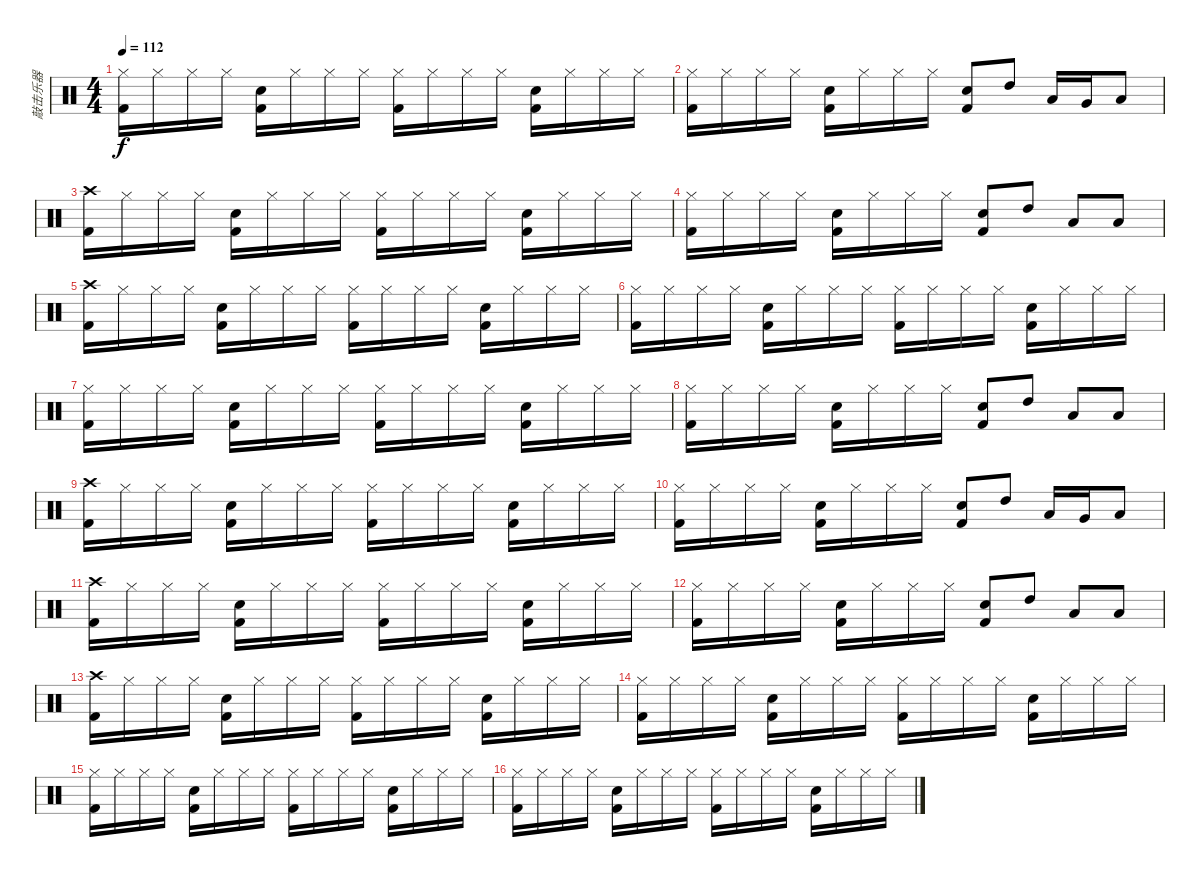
\track ("敲击乐器" "敲击乐器") {instrument percussion}
\staff {score}
\articulation defaults
\ts (4 4)
\tempo 112
\clef neutral
\ks c
("Hi-Hat (closed)" "Kick (hit) 2").16{dy f} "Hi-Hat (closed)".16 "Hi-Hat (closed)".16 "Hi-Hat (closed)".16 ("Snare (hit) 2" "Kick (hit) 2").16 "Hi-Hat (closed)".16 "Hi-Hat (closed)".16 "Hi-Hat (closed)".16 ("Hi-Hat (closed)" "Kick (hit) 2").16 "Hi-Hat (closed)".16 "Hi-Hat (closed)".16 "Hi-Hat (closed)".16 ("Snare (hit) 2" "Kick (hit) 2").16 "Hi-Hat (closed)".16 "Hi-Hat (closed)".16 "Hi-Hat (closed)".16 |
("Hi-Hat (closed)" "Kick (hit) 2").16 "Hi-Hat (closed)".16 "Hi-Hat (closed)".16 "Hi-Hat (closed)".16 ("Snare (hit) 2" "Kick (hit) 2").16 "Hi-Hat (closed)".16 "Hi-Hat (closed)".16 "Hi-Hat (closed)".16 ("Snare (hit) 2" "Kick (hit) 2").8 "High Tom (hit)".8 "Low Tom (hit)".16 "Very Low Tom (hit)".16 "Low Floor Tom (hit)".8 |
("Crash high (hit)" "Kick (hit) 2").16 "Hi-Hat (closed)".16 "Hi-Hat (closed)".16 "Hi-Hat (closed)".16 ("Snare (hit) 2" "Kick (hit) 2").16 "Hi-Hat (closed)".16 "Hi-Hat (closed)".16 "Hi-Hat (closed)".16 ("Hi-Hat (closed)" "Kick (hit) 2").16 "Hi-Hat (closed)".16 "Hi-Hat (closed)".16 "Hi-Hat (closed)".16 ("Snare (hit) 2" "Kick (hit) 2").16 "Hi-Hat (closed)".16 "Hi-Hat (closed)".16 "Hi-Hat (closed)".16 |
("Hi-Hat (closed)" "Kick (hit) 2").16 "Hi-Hat (closed)".16 "Hi-Hat (closed)".16 "Hi-Hat (closed)".16 ("Snare (hit) 2" "Kick (hit) 2").16 "Hi-Hat (closed)".16 "Hi-Hat (closed)".16 "Hi-Hat (closed)".16 ("Snare (hit) 2" "Kick (hit) 2").8 "High Tom (hit)".8 "Low Tom (hit)".8 "Low Floor Tom (hit)".8 |
("Crash high (hit)" "Kick (hit) 2").16 "Hi-Hat (closed)".16 "Hi-Hat (closed)".16 "Hi-Hat (closed)".16 ("Snare (hit) 2" "Kick (hit) 2").16 "Hi-Hat (closed)".16 "Hi-Hat (closed)".16 "Hi-Hat (closed)".16 ("Hi-Hat (closed)" "Kick (hit) 2").16 "Hi-Hat (closed)".16 "Hi-Hat (closed)".16 "Hi-Hat (closed)".16 ("Snare (hit) 2" "Kick (hit) 2").16 "Hi-Hat (closed)".16 "Hi-Hat (closed)".16 "Hi-Hat (closed)".16 |
("Hi-Hat (closed)" "Kick (hit) 2").16 "Hi-Hat (closed)".16 "Hi-Hat (closed)".16 "Hi-Hat (closed)".16 ("Snare (hit) 2" "Kick (hit) 2").16 "Hi-Hat (closed)".16 "Hi-Hat (closed)".16 "Hi-Hat (closed)".16 ("Hi-Hat (closed)" "Kick (hit) 2").16 "Hi-Hat (closed)".16 "Hi-Hat (closed)".16 "Hi-Hat (closed)".16 ("Snare (hit) 2" "Kick (hit) 2").16 "Hi-Hat (closed)".16 "Hi-Hat (closed)".16 "Hi-Hat (closed)".16 |
("Hi-Hat (closed)" "Kick (hit) 2").16 "Hi-Hat (closed)".16 "Hi-Hat (closed)".16 "Hi-Hat (closed)".16 ("Snare (hit) 2" "Kick (hit) 2").16 "Hi-Hat (closed)".16 "Hi-Hat (closed)".16 "Hi-Hat (closed)".16 ("Hi-Hat (closed)" "Kick (hit) 2").16 "Hi-Hat (closed)".16 "Hi-Hat (closed)".16 "Hi-Hat (closed)".16 ("Snare (hit) 2" "Kick (hit) 2").16 "Hi-Hat (closed)".16 "Hi-Hat (closed)".16 "Hi-Hat (closed)".16 |
("Hi-Hat (closed)" "Kick (hit) 2").16 "Hi-Hat (closed)".16 "Hi-Hat (closed)".16 "Hi-Hat (closed)".16 ("Snare (hit) 2" "Kick (hit) 2").16 "Hi-Hat (closed)".16 "Hi-Hat (closed)".16 "Hi-Hat (closed)".16 ("Snare (hit) 2" "Kick (hit) 2").8 "High Tom (hit)".8 "Low Tom (hit)".8 "Low Floor Tom (hit)".8 |
("Crash high (hit)" "Kick (hit) 2").16 "Hi-Hat (closed)".16 "Hi-Hat (closed)".16 "Hi-Hat (closed)".16 ("Snare (hit) 2" "Kick (hit) 2").16 "Hi-Hat (closed)".16 "Hi-Hat (closed)".16 "Hi-Hat (closed)".16 ("Hi-Hat (closed)" "Kick (hit) 2").16 "Hi-Hat (closed)".16 "Hi-Hat (closed)".16 "Hi-Hat (closed)".16 ("Snare (hit) 2" "Kick (hit) 2").16 "Hi-Hat (closed)".16 "Hi-Hat (closed)".16 "Hi-Hat (closed)".16 |
("Hi-Hat (closed)" "Kick (hit) 2").16 "Hi-Hat (closed)".16 "Hi-Hat (closed)".16 "Hi-Hat (closed)".16 ("Snare (hit) 2" "Kick (hit) 2").16 "Hi-Hat (closed)".16 "Hi-Hat (closed)".16 "Hi-Hat (closed)".16 ("Snare (hit) 2" "Kick (hit) 2").8 "High Tom (hit)".8 "Low Tom (hit)".16 "Very Low Tom (hit)".16 "Low Floor Tom (hit)".8 |
("Crash high (hit)" "Kick (hit) 2").16 "Hi-Hat (closed)".16 "Hi-Hat (closed)".16 "Hi-Hat (closed)".16 ("Snare (hit) 2" "Kick (hit) 2").16 "Hi-Hat (closed)".16 "Hi-Hat (closed)".16 "Hi-Hat (closed)".16 ("Hi-Hat (closed)" "Kick (hit) 2").16 "Hi-Hat (closed)".16 "Hi-Hat (closed)".16 "Hi-Hat (closed)".16 ("Snare (hit) 2" "Kick (hit) 2").16 "Hi-Hat (closed)".16 "Hi-Hat (closed)".16 "Hi-Hat (closed)".16 |
("Hi-Hat (closed)" "Kick (hit) 2").16 "Hi-Hat (closed)".16 "Hi-Hat (closed)".16 "Hi-Hat (closed)".16 ("Snare (hit) 2" "Kick (hit) 2").16 "Hi-Hat (closed)".16 "Hi-Hat (closed)".16 "Hi-Hat (closed)".16 ("Snare (hit) 2" "Kick (hit) 2").8 "High Tom (hit)".8 "Low Tom (hit)".8 "Low Floor Tom (hit)".8 |
("Crash high (hit)" "Kick (hit) 2").16 "Hi-Hat (closed)".16 "Hi-Hat (closed)".16 "Hi-Hat (closed)".16 ("Snare (hit) 2" "Kick (hit) 2").16 "Hi-Hat (closed)".16 "Hi-Hat (closed)".16 "Hi-Hat (closed)".16 ("Hi-Hat (closed)" "Kick (hit) 2").16 "Hi-Hat (closed)".16 "Hi-Hat (closed)".16 "Hi-Hat (closed)".16 ("Snare (hit) 2" "Kick (hit) 2").16 "Hi-Hat (closed)".16 "Hi-Hat (closed)".16 "Hi-Hat (closed)".16 |
("Hi-Hat (closed)" "Kick (hit) 2").16 "Hi-Hat (closed)".16 "Hi-Hat (closed)".16 "Hi-Hat (closed)".16 ("Snare (hit) 2" "Kick (hit) 2").16 "Hi-Hat (closed)".16 "Hi-Hat (closed)".16 "Hi-Hat (closed)".16 ("Hi-Hat (closed)" "Kick (hit) 2").16 "Hi-Hat (closed)".16 "Hi-Hat (closed)".16 "Hi-Hat (closed)".16 ("Snare (hit) 2" "Kick (hit) 2").16 "Hi-Hat (closed)".16 "Hi-Hat (closed)".16 "Hi-Hat (closed)".16 |
("Hi-Hat (closed)" "Kick (hit) 2").16 "Hi-Hat (closed)".16 "Hi-Hat (closed)".16 "Hi-Hat (closed)".16 ("Snare (hit) 2" "Kick (hit) 2").16 "Hi-Hat (closed)".16 "Hi-Hat (closed)".16 "Hi-Hat (closed)".16 ("Hi-Hat (closed)" "Kick (hit) 2").16 "Hi-Hat (closed)".16 "Hi-Hat (closed)".16 "Hi-Hat (closed)".16 ("Snare (hit) 2" "Kick (hit) 2").16 "Hi-Hat (closed)".16 "Hi-Hat (closed)".16 "Hi-Hat (closed)".16 |
("Hi-Hat (closed)" "Kick (hit) 2").16 "Hi-Hat (closed)".16 "Hi-Hat (closed)".16 "Hi-Hat (closed)".16 ("Snare (hit) 2" "Kick (hit) 2").16 "Hi-Hat (closed)".16 "Hi-Hat (closed)".16 "Hi-Hat (closed)".16 ("Hi-Hat (closed)" "Kick (hit) 2").16 "Hi-Hat (closed)".16 "Hi-Hat (closed)".16 "Hi-Hat (closed)".16 ("Snare (hit) 2" "Kick (hit) 2").16 "Hi-Hat (closed)".16 "Hi-Hat (closed)".16 "Hi-Hat (closed)".16
